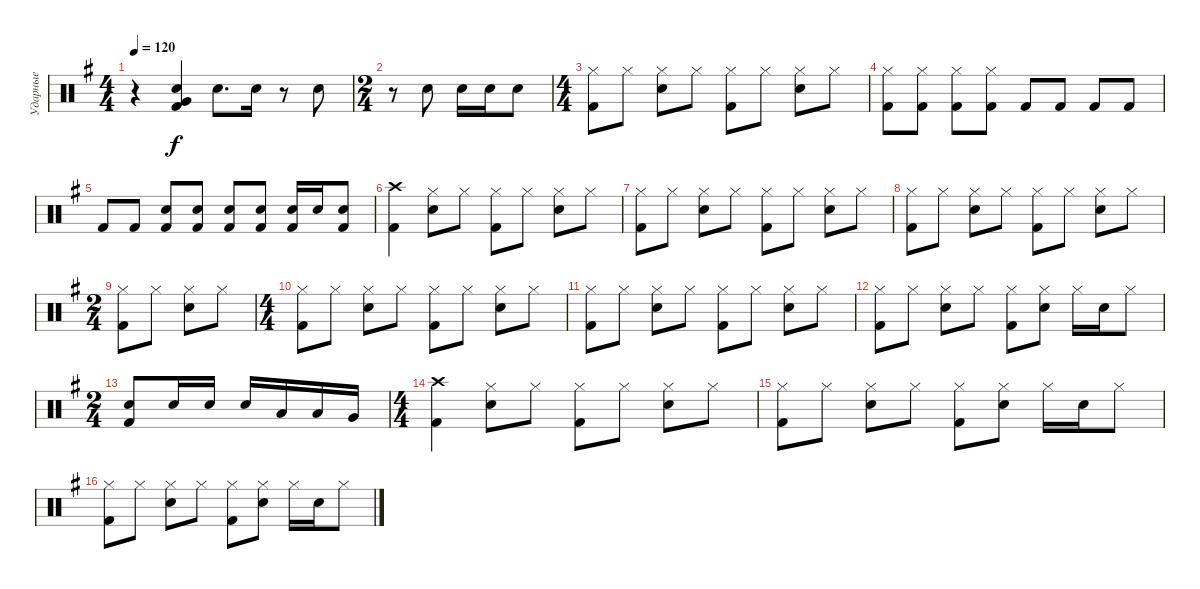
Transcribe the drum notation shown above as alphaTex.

\track ("Ударные" "Ударные") {instrument percussion}
\staff {score}
\articulation defaults
\ts (4 4)
\tempo 120
\clef neutral
\ks g
r.4{dy f} ("Snare (hit) 2" "Very Low Tom (hit)" "Kick (hit) 2").4 "Snare (hit) 2".8{d} "Snare (hit) 2".16 r.8 "Snare (hit) 2".8 |
\ts (2 4)
r.8 "Snare (hit) 2".8 "Snare (hit) 2".16 "Snare (hit) 2".16 "Snare (hit) 2".8 |
\ts (4 4)
("Hi-Hat (closed)" "Kick (hit) 2").8 "Hi-Hat (closed)".8 ("Hi-Hat (closed)" "Snare (hit) 2").8 "Hi-Hat (closed)".8 ("Hi-Hat (closed)" "Kick (hit) 2").8 "Hi-Hat (closed)".8 ("Hi-Hat (closed)" "Snare (hit) 2").8 "Hi-Hat (closed)".8 |
("Hi-Hat (closed)" "Kick (hit) 2").8 ("Hi-Hat (closed)" "Kick (hit) 2").8 ("Hi-Hat (closed)" "Kick (hit) 2").8 ("Hi-Hat (closed)" "Kick (hit) 2").8 "Kick (hit) 2".8 "Kick (hit) 2".8 "Kick (hit) 2".8 "Kick (hit) 2".8 |
"Kick (hit) 2".8 "Kick (hit) 2".8 ("Snare (hit) 2" "Kick (hit) 2").8 ("Snare (hit) 2" "Kick (hit) 2").8 ("Snare (hit) 2" "Kick (hit) 2").8 ("Snare (hit) 2" "Kick (hit) 2").8 ("Snare (hit) 2" "Kick (hit) 2").16 "Snare (hit) 2".16 ("Snare (hit) 2" "Kick (hit) 2").8 |
("Crash high (hit)" "Kick (hit) 2").4 ("Hi-Hat (closed)" "Snare (hit) 2").8 "Hi-Hat (closed)".8 ("Hi-Hat (closed)" "Kick (hit) 2").8 "Hi-Hat (closed)".8 ("Hi-Hat (closed)" "Snare (hit) 2").8 "Hi-Hat (closed)".8 |
("Hi-Hat (closed)" "Kick (hit) 2").8 "Hi-Hat (closed)".8 ("Hi-Hat (closed)" "Snare (hit) 2").8 "Hi-Hat (closed)".8 ("Hi-Hat (closed)" "Kick (hit) 2").8 "Hi-Hat (closed)".8 ("Hi-Hat (closed)" "Snare (hit) 2").8 "Hi-Hat (closed)".8 |
("Hi-Hat (closed)" "Kick (hit) 2").8 "Hi-Hat (closed)".8 ("Hi-Hat (closed)" "Snare (hit) 2").8 "Hi-Hat (closed)".8 ("Hi-Hat (closed)" "Kick (hit) 2").8 "Hi-Hat (closed)".8 ("Hi-Hat (closed)" "Snare (hit) 2").8 "Hi-Hat (closed)".8 |
\ts (2 4)
("Hi-Hat (closed)" "Kick (hit) 2").8 "Hi-Hat (closed)".8 ("Hi-Hat (closed)" "Snare (hit) 2").8 "Hi-Hat (closed)".8 |
\ts (4 4)
("Hi-Hat (closed)" "Kick (hit) 2").8 "Hi-Hat (closed)".8 ("Hi-Hat (closed)" "Snare (hit) 2").8 "Hi-Hat (closed)".8 ("Hi-Hat (closed)" "Kick (hit) 2").8 "Hi-Hat (closed)".8 ("Hi-Hat (closed)" "Snare (hit) 2").8 "Hi-Hat (closed)".8 |
("Hi-Hat (closed)" "Kick (hit) 2").8 "Hi-Hat (closed)".8 ("Hi-Hat (closed)" "Snare (hit) 2").8 "Hi-Hat (closed)".8 ("Hi-Hat (closed)" "Kick (hit) 2").8 "Hi-Hat (closed)".8 ("Hi-Hat (closed)" "Snare (hit) 2").8 "Hi-Hat (closed)".8 |
("Hi-Hat (closed)" "Kick (hit) 2").8 "Hi-Hat (closed)".8 ("Hi-Hat (closed)" "Snare (hit) 2").8 "Hi-Hat (closed)".8 ("Hi-Hat (closed)" "Kick (hit) 2").8 ("Hi-Hat (closed)" "Snare (hit) 2").8 "Hi-Hat (closed)".16 "Snare (hit) 2".16 "Hi-Hat (closed)".8 |
\ts (2 4)
("Snare (hit) 2" "Kick (hit) 2").8 "Snare (hit) 2".16 "Snare (hit) 2".16 "Snare (hit) 2".16 "Low Tom (hit)".16 "Low Tom (hit)".16 "Very Low Tom (hit)".16 |
\ts (4 4)
("Crash high (hit)" "Kick (hit) 2").4 ("Hi-Hat (closed)" "Snare (hit) 2").8 "Hi-Hat (closed)".8 ("Hi-Hat (closed)" "Kick (hit) 2").8 "Hi-Hat (closed)".8 ("Hi-Hat (closed)" "Snare (hit) 2").8 "Hi-Hat (closed)".8 |
("Hi-Hat (closed)" "Kick (hit) 2").8 "Hi-Hat (closed)".8 ("Hi-Hat (closed)" "Snare (hit) 2").8 "Hi-Hat (closed)".8 ("Hi-Hat (closed)" "Kick (hit) 2").8 ("Hi-Hat (closed)" "Snare (hit) 2").8 "Hi-Hat (closed)".16 "Snare (hit) 2".16 "Hi-Hat (closed)".8 |
("Hi-Hat (closed)" "Kick (hit) 2").8 "Hi-Hat (closed)".8 ("Hi-Hat (closed)" "Snare (hit) 2").8 "Hi-Hat (closed)".8 ("Hi-Hat (closed)" "Kick (hit) 2").8 ("Hi-Hat (closed)" "Snare (hit) 2").8 "Hi-Hat (closed)".16 "Snare (hit) 2".16 "Hi-Hat (closed)".8
